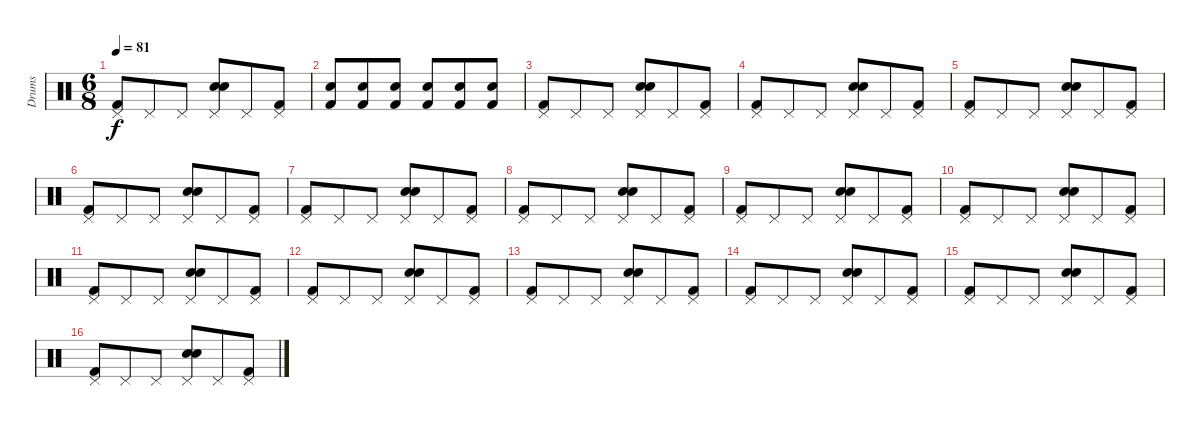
\track ("Drums" "Drums") {instrument percussion}
\staff {score}
\articulation defaults
\ts (6 8)
\tempo 81
\clef neutral
\ks c
("Kick (hit) 2" "Pedal Hi-Hat (hit)").8{dy f} "Pedal Hi-Hat (hit)".8 "Pedal Hi-Hat (hit)".8 ("Electric Snare (hit)" "Snare (hit) 2" "Pedal Hi-Hat (hit)").8 "Pedal Hi-Hat (hit)".8 ("Kick (hit) 2" "Pedal Hi-Hat (hit)").8 |
("Electric Snare (hit)" "Kick (hit) 2").8 ("Electric Snare (hit)" "Kick (hit) 2").8 ("Electric Snare (hit)" "Kick (hit) 2").8 ("Electric Snare (hit)" "Kick (hit) 2").8 ("Electric Snare (hit)" "Kick (hit) 2").8 ("Electric Snare (hit)" "Kick (hit) 2").8 |
("Kick (hit) 2" "Pedal Hi-Hat (hit)").8 "Pedal Hi-Hat (hit)".8 "Pedal Hi-Hat (hit)".8 ("Electric Snare (hit)" "Snare (hit) 2" "Pedal Hi-Hat (hit)").8 "Pedal Hi-Hat (hit)".8 ("Kick (hit) 2" "Pedal Hi-Hat (hit)").8 |
("Kick (hit) 2" "Pedal Hi-Hat (hit)").8 "Pedal Hi-Hat (hit)".8 "Pedal Hi-Hat (hit)".8 ("Electric Snare (hit)" "Snare (hit) 2" "Pedal Hi-Hat (hit)").8 "Pedal Hi-Hat (hit)".8 ("Kick (hit) 2" "Pedal Hi-Hat (hit)").8 |
("Kick (hit) 2" "Pedal Hi-Hat (hit)").8 "Pedal Hi-Hat (hit)".8 "Pedal Hi-Hat (hit)".8 ("Electric Snare (hit)" "Snare (hit) 2" "Pedal Hi-Hat (hit)").8 "Pedal Hi-Hat (hit)".8 ("Kick (hit) 2" "Pedal Hi-Hat (hit)").8 |
("Kick (hit) 2" "Pedal Hi-Hat (hit)").8 "Pedal Hi-Hat (hit)".8 "Pedal Hi-Hat (hit)".8 ("Electric Snare (hit)" "Snare (hit) 2" "Pedal Hi-Hat (hit)").8 "Pedal Hi-Hat (hit)".8 ("Kick (hit) 2" "Pedal Hi-Hat (hit)").8 |
("Kick (hit) 2" "Pedal Hi-Hat (hit)").8 "Pedal Hi-Hat (hit)".8 "Pedal Hi-Hat (hit)".8 ("Electric Snare (hit)" "Snare (hit) 2" "Pedal Hi-Hat (hit)").8 "Pedal Hi-Hat (hit)".8 ("Kick (hit) 2" "Pedal Hi-Hat (hit)").8 |
("Kick (hit) 2" "Pedal Hi-Hat (hit)").8 "Pedal Hi-Hat (hit)".8 "Pedal Hi-Hat (hit)".8 ("Electric Snare (hit)" "Snare (hit) 2" "Pedal Hi-Hat (hit)").8 "Pedal Hi-Hat (hit)".8 ("Kick (hit) 2" "Pedal Hi-Hat (hit)").8 |
("Kick (hit) 2" "Pedal Hi-Hat (hit)").8 "Pedal Hi-Hat (hit)".8 "Pedal Hi-Hat (hit)".8 ("Electric Snare (hit)" "Snare (hit) 2" "Pedal Hi-Hat (hit)").8 "Pedal Hi-Hat (hit)".8 ("Kick (hit) 2" "Pedal Hi-Hat (hit)").8 |
("Kick (hit) 2" "Pedal Hi-Hat (hit)").8 "Pedal Hi-Hat (hit)".8 "Pedal Hi-Hat (hit)".8 ("Electric Snare (hit)" "Snare (hit) 2" "Pedal Hi-Hat (hit)").8 "Pedal Hi-Hat (hit)".8 ("Kick (hit) 2" "Pedal Hi-Hat (hit)").8 |
("Kick (hit) 2" "Pedal Hi-Hat (hit)").8 "Pedal Hi-Hat (hit)".8 "Pedal Hi-Hat (hit)".8 ("Electric Snare (hit)" "Snare (hit) 2" "Pedal Hi-Hat (hit)").8 "Pedal Hi-Hat (hit)".8 ("Kick (hit) 2" "Pedal Hi-Hat (hit)").8 |
("Kick (hit) 2" "Pedal Hi-Hat (hit)").8 "Pedal Hi-Hat (hit)".8 "Pedal Hi-Hat (hit)".8 ("Electric Snare (hit)" "Snare (hit) 2" "Pedal Hi-Hat (hit)").8 "Pedal Hi-Hat (hit)".8 ("Kick (hit) 2" "Pedal Hi-Hat (hit)").8 |
("Kick (hit) 2" "Pedal Hi-Hat (hit)").8 "Pedal Hi-Hat (hit)".8 "Pedal Hi-Hat (hit)".8 ("Electric Snare (hit)" "Snare (hit) 2" "Pedal Hi-Hat (hit)").8 "Pedal Hi-Hat (hit)".8 ("Kick (hit) 2" "Pedal Hi-Hat (hit)").8 |
("Kick (hit) 2" "Pedal Hi-Hat (hit)").8 "Pedal Hi-Hat (hit)".8 "Pedal Hi-Hat (hit)".8 ("Electric Snare (hit)" "Snare (hit) 2" "Pedal Hi-Hat (hit)").8 "Pedal Hi-Hat (hit)".8 ("Kick (hit) 2" "Pedal Hi-Hat (hit)").8 |
("Kick (hit) 2" "Pedal Hi-Hat (hit)").8 "Pedal Hi-Hat (hit)".8 "Pedal Hi-Hat (hit)".8 ("Electric Snare (hit)" "Snare (hit) 2" "Pedal Hi-Hat (hit)").8 "Pedal Hi-Hat (hit)".8 ("Kick (hit) 2" "Pedal Hi-Hat (hit)").8 |
("Kick (hit) 2" "Pedal Hi-Hat (hit)").8 "Pedal Hi-Hat (hit)".8 "Pedal Hi-Hat (hit)".8 ("Electric Snare (hit)" "Snare (hit) 2" "Pedal Hi-Hat (hit)").8 "Pedal Hi-Hat (hit)".8 ("Kick (hit) 2" "Pedal Hi-Hat (hit)").8
